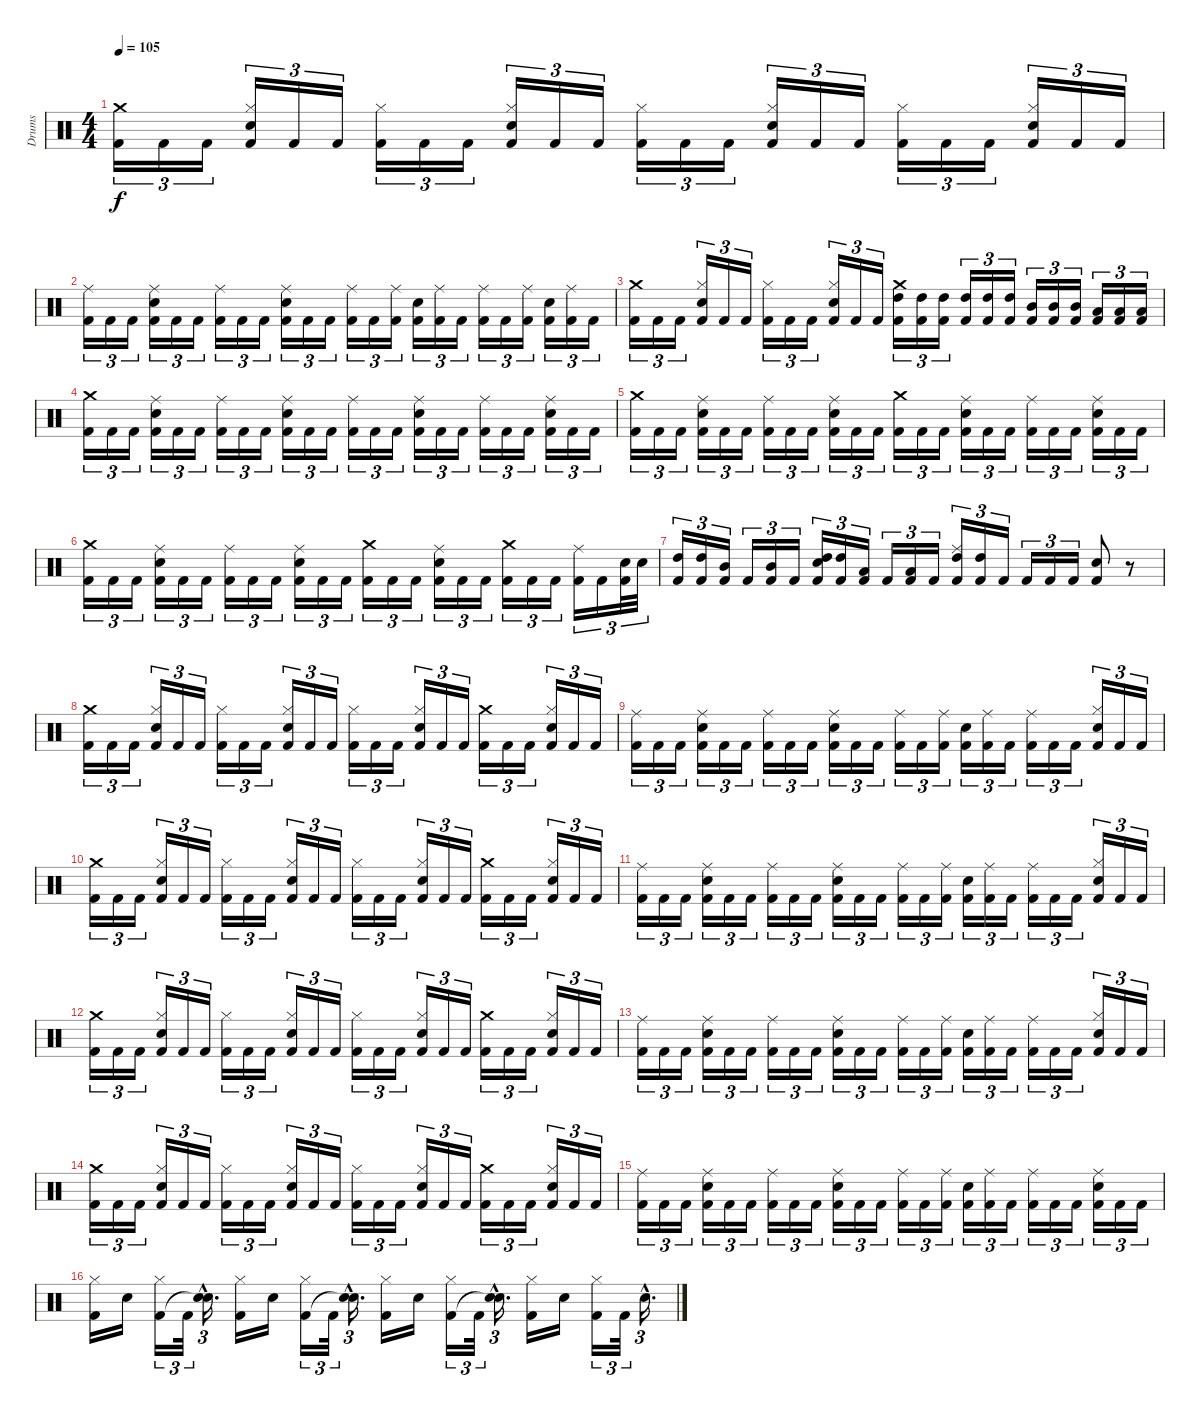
\track ("Drums" "Drums") {instrument percussion}
\staff {score}
\articulation defaults
\ts (4 4)
\tempo 105
\clef neutral
\ks c
("Crash medium (hit)" "Kick (hit) 2").16{tu (3 2) dy f} "Kick (hit) 2".16{tu (3 2)} "Kick (hit) 2".16{tu (3 2)} ("Hi-Hat (closed)" "Electric Snare (hit)" "Kick (hit) 2").16{tu (3 2)} "Kick (hit) 2".16{tu (3 2)} "Kick (hit) 2".16{tu (3 2)} ("Hi-Hat (closed)" "Kick (hit) 2").16{tu (3 2)} "Kick (hit) 2".16{tu (3 2)} "Kick (hit) 2".16{tu (3 2)} ("Hi-Hat (closed)" "Electric Snare (hit)" "Kick (hit) 2").16{tu (3 2)} "Kick (hit) 2".16{tu (3 2)} "Kick (hit) 2".16{tu (3 2)} ("Hi-Hat (closed)" "Kick (hit) 2").16{tu (3 2)} "Kick (hit) 2".16{tu (3 2)} "Kick (hit) 2".16{tu (3 2)} ("Hi-Hat (closed)" "Electric Snare (hit)" "Kick (hit) 2").16{tu (3 2)} "Kick (hit) 2".16{tu (3 2)} "Kick (hit) 2".16{tu (3 2)} ("Hi-Hat (closed)" "Kick (hit) 2").16{tu (3 2)} "Kick (hit) 2".16{tu (3 2)} "Kick (hit) 2".16{tu (3 2)} ("Hi-Hat (closed)" "Electric Snare (hit)" "Kick (hit) 2").16{tu (3 2)} "Kick (hit) 2".16{tu (3 2)} "Kick (hit) 2".16{tu (3 2)} |
("Ride (middle)" "Kick (hit) 2").16{tu (3 2)} "Kick (hit) 2".16{tu (3 2)} "Kick (hit) 2".16{tu (3 2)} ("Ride (middle)" "Electric Snare (hit)" "Kick (hit) 2").16{tu (3 2)} "Kick (hit) 2".16{tu (3 2)} "Kick (hit) 2".16{tu (3 2)} ("Ride (middle)" "Kick (hit) 2").16{tu (3 2)} "Kick (hit) 2".16{tu (3 2)} "Kick (hit) 2".16{tu (3 2)} ("Ride (middle)" "Electric Snare (hit)" "Kick (hit) 2").16{tu (3 2)} "Kick (hit) 2".16{tu (3 2)} "Kick (hit) 2".16{tu (3 2)} ("Ride (middle)" "Kick (hit) 2").16{tu (3 2)} "Kick (hit) 2".16{tu (3 2)} ("Ride (middle)" "Kick (hit) 2").16{tu (3 2)} ("Electric Snare (hit)" "Kick (hit) 2").16{tu (3 2)} ("Ride (middle)" "Kick (hit) 2").16{tu (3 2)} "Kick (hit) 2".16{tu (3 2)} ("Ride (middle)" "Kick (hit) 2").16{tu (3 2)} "Kick (hit) 2".16{tu (3 2)} ("Ride (middle)" "Kick (hit) 2").16{tu (3 2)} ("Electric Snare (hit)" "Kick (hit) 2").16{tu (3 2)} ("Ride (middle)" "Kick (hit) 2").16{tu (3 2)} "Kick (hit) 2".16{tu (3 2)} |
("Crash medium (hit)" "Kick (hit) 2").16{tu (3 2)} "Kick (hit) 2".16{tu (3 2)} "Kick (hit) 2".16{tu (3 2)} ("Hi-Hat (closed)" "Electric Snare (hit)" "Kick (hit) 2").16{tu (3 2)} "Kick (hit) 2".16{tu (3 2)} "Kick (hit) 2".16{tu (3 2)} ("Hi-Hat (closed)" "Kick (hit) 2").16{tu (3 2)} "Kick (hit) 2".16{tu (3 2)} "Kick (hit) 2".16{tu (3 2)} ("Hi-Hat (closed)" "Electric Snare (hit)" "Kick (hit) 2").16{tu (3 2)} "Kick (hit) 2".16{tu (3 2)} "Kick (hit) 2".16{tu (3 2)} ("Crash medium (hit)" "High Tom (hit)" "Kick (hit) 2").16{tu (3 2)} ("High Tom (hit)" "Kick (hit) 2").16{tu (3 2)} ("High Tom (hit)" "Kick (hit) 2").16{tu (3 2)} ("High Tom (hit)" "Kick (hit) 2").16{tu (3 2)} ("High Tom (hit)" "Kick (hit) 2").16{tu (3 2)} ("High Tom (hit)" "Kick (hit) 2").16{tu (3 2)} ("Mid Tom (hit)" "Kick (hit) 2").16{tu (3 2)} ("Mid Tom (hit)" "Kick (hit) 2").16{tu (3 2)} ("Mid Tom (hit)" "Kick (hit) 2").16{tu (3 2)} ("Low Tom (hit)" "Kick (hit) 2").16{tu (3 2)} ("Low Tom (hit)" "Kick (hit) 2").16{tu (3 2)} ("Low Tom (hit)" "Kick (hit) 2").16{tu (3 2)} |
("Crash medium (hit)" "Kick (hit) 2").16{tu (3 2)} "Kick (hit) 2".16{tu (3 2)} "Kick (hit) 2".16{tu (3 2)} ("Ride (middle)" "Electric Snare (hit)" "Kick (hit) 2").16{tu (3 2)} "Kick (hit) 2".16{tu (3 2)} "Kick (hit) 2".16{tu (3 2)} ("Ride (middle)" "Kick (hit) 2").16{tu (3 2)} "Kick (hit) 2".16{tu (3 2)} "Kick (hit) 2".16{tu (3 2)} ("Ride (middle)" "Electric Snare (hit)" "Kick (hit) 2").16{tu (3 2)} "Kick (hit) 2".16{tu (3 2)} "Kick (hit) 2".16{tu (3 2)} ("Ride (middle)" "Kick (hit) 2").16{tu (3 2)} "Kick (hit) 2".16{tu (3 2)} "Kick (hit) 2".16{tu (3 2)} ("Ride (middle)" "Electric Snare (hit)" "Kick (hit) 2").16{tu (3 2)} "Kick (hit) 2".16{tu (3 2)} "Kick (hit) 2".16{tu (3 2)} ("Ride (middle)" "Kick (hit) 2").16{tu (3 2)} "Kick (hit) 2".16{tu (3 2)} "Kick (hit) 2".16{tu (3 2)} ("Ride (middle)" "Electric Snare (hit)" "Kick (hit) 2").16{tu (3 2)} "Kick (hit) 2".16{tu (3 2)} "Kick (hit) 2".16{tu (3 2)} |
("Crash medium (hit)" "Kick (hit) 2").16{tu (3 2)} "Kick (hit) 2".16{tu (3 2)} "Kick (hit) 2".16{tu (3 2)} ("Ride (middle)" "Electric Snare (hit)" "Kick (hit) 2").16{tu (3 2)} "Kick (hit) 2".16{tu (3 2)} "Kick (hit) 2".16{tu (3 2)} ("Ride (middle)" "Kick (hit) 2").16{tu (3 2)} "Kick (hit) 2".16{tu (3 2)} "Kick (hit) 2".16{tu (3 2)} ("Ride (middle)" "Electric Snare (hit)" "Kick (hit) 2").16{tu (3 2)} "Kick (hit) 2".16{tu (3 2)} "Kick (hit) 2".16{tu (3 2)} ("Crash medium (hit)" "Kick (hit) 2").16{tu (3 2)} "Kick (hit) 2".16{tu (3 2)} "Kick (hit) 2".16{tu (3 2)} ("Ride (middle)" "Electric Snare (hit)" "Kick (hit) 2").16{tu (3 2)} "Kick (hit) 2".16{tu (3 2)} "Kick (hit) 2".16{tu (3 2)} ("Ride (middle)" "Kick (hit) 2").16{tu (3 2)} "Kick (hit) 2".16{tu (3 2)} "Kick (hit) 2".16{tu (3 2)} ("Ride (middle)" "Electric Snare (hit)" "Kick (hit) 2").16{tu (3 2)} "Kick (hit) 2".16{tu (3 2)} "Kick (hit) 2".16{tu (3 2)} |
("Crash medium (hit)" "Kick (hit) 2").16{tu (3 2)} "Kick (hit) 2".16{tu (3 2)} "Kick (hit) 2".16{tu (3 2)} ("Ride (middle)" "Electric Snare (hit)" "Kick (hit) 2").16{tu (3 2)} "Kick (hit) 2".16{tu (3 2)} "Kick (hit) 2".16{tu (3 2)} ("Ride (middle)" "Kick (hit) 2").16{tu (3 2)} "Kick (hit) 2".16{tu (3 2)} "Kick (hit) 2".16{tu (3 2)} ("Ride (middle)" "Electric Snare (hit)" "Kick (hit) 2").16{tu (3 2)} "Kick (hit) 2".16{tu (3 2)} "Kick (hit) 2".16{tu (3 2)} ("Crash medium (hit)" "Kick (hit) 2").16{tu (3 2)} "Kick (hit) 2".16{tu (3 2)} "Kick (hit) 2".16{tu (3 2)} ("Ride (middle)" "Electric Snare (hit)" "Kick (hit) 2").16{tu (3 2)} "Kick (hit) 2".16{tu (3 2)} "Kick (hit) 2".16{tu (3 2)} ("Crash medium (hit)" "Kick (hit) 2").16{tu (3 2)} "Kick (hit) 2".16{tu (3 2)} "Kick (hit) 2".16{tu (3 2)} ("Ride (middle)" "Kick (hit) 2").16{tu (3 2)} "Kick (hit) 2".16{tu (3 2)} ("Electric Snare (hit)" "Kick (hit) 2").32{tu (3 2)} "Electric Snare (hit)".32{tu (3 2)} |
("High Tom (hit)" "Kick (hit) 2").16{tu (3 2)} ("High Tom (hit)" "Kick (hit) 2").16{tu (3 2)} ("Mid Tom (hit)" "Kick (hit) 2").16{tu (3 2)} "Kick (hit) 2".16{tu (3 2)} ("Mid Tom (hit)" "Kick (hit) 2").16{tu (3 2)} "Kick (hit) 2".16{tu (3 2)} ("Electric Snare (hit)" "High Tom (hit)" "Kick (hit) 2").16{tu (3 2)} ("High Tom (hit)" "Kick (hit) 2").16{tu (3 2)} ("Low Tom (hit)" "Kick (hit) 2").16{tu (3 2)} "Kick (hit) 2".16{tu (3 2)} ("Low Tom (hit)" "Kick (hit) 2").16{tu (3 2)} "Kick (hit) 2".16{tu (3 2)} ("Ride (middle)" "High Tom (hit)" "Kick (hit) 2").16{tu (3 2)} ("High Tom (hit)" "Kick (hit) 2").16{tu (3 2)} "Kick (hit) 2".16{tu (3 2)} "Kick (hit) 2".16{tu (3 2)} "Kick (hit) 2".16{tu (3 2)} "Kick (hit) 2".16{tu (3 2)} ("Electric Snare (hit)" "Kick (hit) 2").8 r.8 |
("Crash medium (hit)" "Kick (hit) 2").16{tu (3 2)} "Kick (hit) 2".16{tu (3 2)} "Kick (hit) 2".16{tu (3 2)} ("Hi-Hat (closed)" "Electric Snare (hit)" "Kick (hit) 2").16{tu (3 2)} "Kick (hit) 2".16{tu (3 2)} "Kick (hit) 2".16{tu (3 2)} ("Hi-Hat (closed)" "Kick (hit) 2").16{tu (3 2)} "Kick (hit) 2".16{tu (3 2)} "Kick (hit) 2".16{tu (3 2)} ("Hi-Hat (closed)" "Electric Snare (hit)" "Kick (hit) 2").16{tu (3 2)} "Kick (hit) 2".16{tu (3 2)} "Kick (hit) 2".16{tu (3 2)} ("Hi-Hat (closed)" "Kick (hit) 2").16{tu (3 2)} "Kick (hit) 2".16{tu (3 2)} "Kick (hit) 2".16{tu (3 2)} ("Hi-Hat (closed)" "Electric Snare (hit)" "Kick (hit) 2").16{tu (3 2)} "Kick (hit) 2".16{tu (3 2)} "Kick (hit) 2".16{tu (3 2)} ("Crash medium (hit)" "Kick (hit) 2").16{tu (3 2)} "Kick (hit) 2".16{tu (3 2)} "Kick (hit) 2".16{tu (3 2)} ("Hi-Hat (closed)" "Electric Snare (hit)" "Kick (hit) 2").16{tu (3 2)} "Kick (hit) 2".16{tu (3 2)} "Kick (hit) 2".16{tu (3 2)} |
("Ride (middle)" "Kick (hit) 2").16{tu (3 2)} "Kick (hit) 2".16{tu (3 2)} "Kick (hit) 2".16{tu (3 2)} ("Ride (middle)" "Electric Snare (hit)" "Kick (hit) 2").16{tu (3 2)} "Kick (hit) 2".16{tu (3 2)} "Kick (hit) 2".16{tu (3 2)} ("Ride (middle)" "Kick (hit) 2").16{tu (3 2)} "Kick (hit) 2".16{tu (3 2)} "Kick (hit) 2".16{tu (3 2)} ("Ride (middle)" "Electric Snare (hit)" "Kick (hit) 2").16{tu (3 2)} "Kick (hit) 2".16{tu (3 2)} "Kick (hit) 2".16{tu (3 2)} ("Ride (middle)" "Kick (hit) 2").16{tu (3 2)} "Kick (hit) 2".16{tu (3 2)} ("Ride (middle)" "Kick (hit) 2").16{tu (3 2)} ("Electric Snare (hit)" "Kick (hit) 2").16{tu (3 2)} ("Ride (middle)" "Kick (hit) 2").16{tu (3 2)} "Kick (hit) 2".16{tu (3 2)} ("Ride (middle)" "Kick (hit) 2").16{tu (3 2)} "Kick (hit) 2".16{tu (3 2)} "Kick (hit) 2".16{tu (3 2)} ("Hi-Hat (closed)" "Electric Snare (hit)" "Kick (hit) 2").16{tu (3 2)} "Kick (hit) 2".16{tu (3 2)} "Kick (hit) 2".16{tu (3 2)} |
("Crash medium (hit)" "Kick (hit) 2").16{tu (3 2)} "Kick (hit) 2".16{tu (3 2)} "Kick (hit) 2".16{tu (3 2)} ("Hi-Hat (closed)" "Electric Snare (hit)" "Kick (hit) 2").16{tu (3 2)} "Kick (hit) 2".16{tu (3 2)} "Kick (hit) 2".16{tu (3 2)} ("Hi-Hat (closed)" "Kick (hit) 2").16{tu (3 2)} "Kick (hit) 2".16{tu (3 2)} "Kick (hit) 2".16{tu (3 2)} ("Hi-Hat (closed)" "Electric Snare (hit)" "Kick (hit) 2").16{tu (3 2)} "Kick (hit) 2".16{tu (3 2)} "Kick (hit) 2".16{tu (3 2)} ("Hi-Hat (closed)" "Kick (hit) 2").16{tu (3 2)} "Kick (hit) 2".16{tu (3 2)} "Kick (hit) 2".16{tu (3 2)} ("Hi-Hat (closed)" "Electric Snare (hit)" "Kick (hit) 2").16{tu (3 2)} "Kick (hit) 2".16{tu (3 2)} "Kick (hit) 2".16{tu (3 2)} ("Crash medium (hit)" "Kick (hit) 2").16{tu (3 2)} "Kick (hit) 2".16{tu (3 2)} "Kick (hit) 2".16{tu (3 2)} ("Hi-Hat (closed)" "Electric Snare (hit)" "Kick (hit) 2").16{tu (3 2)} "Kick (hit) 2".16{tu (3 2)} "Kick (hit) 2".16{tu (3 2)} |
("Ride (middle)" "Kick (hit) 2").16{tu (3 2)} "Kick (hit) 2".16{tu (3 2)} "Kick (hit) 2".16{tu (3 2)} ("Ride (middle)" "Electric Snare (hit)" "Kick (hit) 2").16{tu (3 2)} "Kick (hit) 2".16{tu (3 2)} "Kick (hit) 2".16{tu (3 2)} ("Ride (middle)" "Kick (hit) 2").16{tu (3 2)} "Kick (hit) 2".16{tu (3 2)} "Kick (hit) 2".16{tu (3 2)} ("Ride (middle)" "Electric Snare (hit)" "Kick (hit) 2").16{tu (3 2)} "Kick (hit) 2".16{tu (3 2)} "Kick (hit) 2".16{tu (3 2)} ("Ride (middle)" "Kick (hit) 2").16{tu (3 2)} "Kick (hit) 2".16{tu (3 2)} ("Ride (middle)" "Kick (hit) 2").16{tu (3 2)} ("Electric Snare (hit)" "Kick (hit) 2").16{tu (3 2)} ("Ride (middle)" "Kick (hit) 2").16{tu (3 2)} "Kick (hit) 2".16{tu (3 2)} ("Ride (middle)" "Kick (hit) 2").16{tu (3 2)} "Kick (hit) 2".16{tu (3 2)} "Kick (hit) 2".16{tu (3 2)} ("Hi-Hat (closed)" "Electric Snare (hit)" "Kick (hit) 2").16{tu (3 2)} "Kick (hit) 2".16{tu (3 2)} "Kick (hit) 2".16{tu (3 2)} |
("Crash medium (hit)" "Kick (hit) 2").16{tu (3 2)} "Kick (hit) 2".16{tu (3 2)} "Kick (hit) 2".16{tu (3 2)} ("Hi-Hat (closed)" "Electric Snare (hit)" "Kick (hit) 2").16{tu (3 2)} "Kick (hit) 2".16{tu (3 2)} "Kick (hit) 2".16{tu (3 2)} ("Hi-Hat (closed)" "Kick (hit) 2").16{tu (3 2)} "Kick (hit) 2".16{tu (3 2)} "Kick (hit) 2".16{tu (3 2)} ("Hi-Hat (closed)" "Electric Snare (hit)" "Kick (hit) 2").16{tu (3 2)} "Kick (hit) 2".16{tu (3 2)} "Kick (hit) 2".16{tu (3 2)} ("Hi-Hat (closed)" "Kick (hit) 2").16{tu (3 2)} "Kick (hit) 2".16{tu (3 2)} "Kick (hit) 2".16{tu (3 2)} ("Hi-Hat (closed)" "Electric Snare (hit)" "Kick (hit) 2").16{tu (3 2)} "Kick (hit) 2".16{tu (3 2)} "Kick (hit) 2".16{tu (3 2)} ("Crash medium (hit)" "Kick (hit) 2").16{tu (3 2)} "Kick (hit) 2".16{tu (3 2)} "Kick (hit) 2".16{tu (3 2)} ("Hi-Hat (closed)" "Electric Snare (hit)" "Kick (hit) 2").16{tu (3 2)} "Kick (hit) 2".16{tu (3 2)} "Kick (hit) 2".16{tu (3 2)} |
("Ride (middle)" "Kick (hit) 2").16{tu (3 2)} "Kick (hit) 2".16{tu (3 2)} "Kick (hit) 2".16{tu (3 2)} ("Ride (middle)" "Electric Snare (hit)" "Kick (hit) 2").16{tu (3 2)} "Kick (hit) 2".16{tu (3 2)} "Kick (hit) 2".16{tu (3 2)} ("Ride (middle)" "Kick (hit) 2").16{tu (3 2)} "Kick (hit) 2".16{tu (3 2)} "Kick (hit) 2".16{tu (3 2)} ("Ride (middle)" "Electric Snare (hit)" "Kick (hit) 2").16{tu (3 2)} "Kick (hit) 2".16{tu (3 2)} "Kick (hit) 2".16{tu (3 2)} ("Ride (middle)" "Kick (hit) 2").16{tu (3 2)} "Kick (hit) 2".16{tu (3 2)} ("Ride (middle)" "Kick (hit) 2").16{tu (3 2)} ("Electric Snare (hit)" "Kick (hit) 2").16{tu (3 2)} ("Ride (middle)" "Kick (hit) 2").16{tu (3 2)} "Kick (hit) 2".16{tu (3 2)} ("Ride (middle)" "Kick (hit) 2").16{tu (3 2)} "Kick (hit) 2".16{tu (3 2)} "Kick (hit) 2".16{tu (3 2)} ("Hi-Hat (closed)" "Electric Snare (hit)" "Kick (hit) 2").16{tu (3 2)} "Kick (hit) 2".16{tu (3 2)} "Kick (hit) 2".16{tu (3 2)} |
("Crash medium (hit)" "Kick (hit) 2").16{tu (3 2)} "Kick (hit) 2".16{tu (3 2)} "Kick (hit) 2".16{tu (3 2)} ("Hi-Hat (closed)" "Electric Snare (hit)" "Kick (hit) 2").16{tu (3 2)} "Kick (hit) 2".16{tu (3 2)} "Kick (hit) 2".16{tu (3 2)} ("Hi-Hat (closed)" "Kick (hit) 2").16{tu (3 2)} "Kick (hit) 2".16{tu (3 2)} "Kick (hit) 2".16{tu (3 2)} ("Hi-Hat (closed)" "Electric Snare (hit)" "Kick (hit) 2").16{tu (3 2)} "Kick (hit) 2".16{tu (3 2)} "Kick (hit) 2".16{tu (3 2)} ("Hi-Hat (closed)" "Kick (hit) 2").16{tu (3 2)} "Kick (hit) 2".16{tu (3 2)} "Kick (hit) 2".16{tu (3 2)} ("Hi-Hat (closed)" "Electric Snare (hit)" "Kick (hit) 2").16{tu (3 2)} "Kick (hit) 2".16{tu (3 2)} "Kick (hit) 2".16{tu (3 2)} ("Crash medium (hit)" "Kick (hit) 2").16{tu (3 2)} "Kick (hit) 2".16{tu (3 2)} "Kick (hit) 2".16{tu (3 2)} ("Hi-Hat (closed)" "Electric Snare (hit)" "Kick (hit) 2").16{tu (3 2)} "Kick (hit) 2".16{tu (3 2)} "Kick (hit) 2".16{tu (3 2)} |
("Ride (middle)" "Kick (hit) 2").16{tu (3 2)} "Kick (hit) 2".16{tu (3 2)} "Kick (hit) 2".16{tu (3 2)} ("Ride (middle)" "Electric Snare (hit)" "Kick (hit) 2").16{tu (3 2)} "Kick (hit) 2".16{tu (3 2)} "Kick (hit) 2".16{tu (3 2)} ("Ride (middle)" "Kick (hit) 2").16{tu (3 2)} "Kick (hit) 2".16{tu (3 2)} "Kick (hit) 2".16{tu (3 2)} ("Ride (middle)" "Electric Snare (hit)" "Kick (hit) 2").16{tu (3 2)} "Kick (hit) 2".16{tu (3 2)} "Kick (hit) 2".16{tu (3 2)} ("Ride (middle)" "Kick (hit) 2").16{tu (3 2)} "Kick (hit) 2".16{tu (3 2)} ("Ride (middle)" "Kick (hit) 2").16{tu (3 2)} ("Electric Snare (hit)" "Kick (hit) 2").16{tu (3 2)} ("Ride (middle)" "Kick (hit) 2").16{tu (3 2)} "Kick (hit) 2".16{tu (3 2)} ("Ride (middle)" "Kick (hit) 2").16{tu (3 2)} "Kick (hit) 2".16{tu (3 2)} "Kick (hit) 2".16{tu (3 2)} ("Ride (middle)" "Electric Snare (hit)" "Kick (hit) 2").16{tu (3 2)} "Kick (hit) 2".16{tu (3 2)} "Kick (hit) 2".16{tu (3 2)} |
("Hi-Hat (closed)" "Kick (hit) 2").16 "Electric Snare (hit)".16 ("Hi-Hat (closed)" "Kick (hit) 2").16{tu (3 2)} "Kick (hit) 2".32{tu (3 2)} ("Electric Snare (hit)"{hac} "Snare (hit)"{hac t}).16{d tu (3 2)} ("Hi-Hat (closed)" "Kick (hit) 2").16 "Electric Snare (hit)".16 ("Hi-Hat (closed)" "Kick (hit) 2").16{tu (3 2)} "Kick (hit) 2".32{tu (3 2)} ("Electric Snare (hit)"{hac} "Snare (hit)"{hac t}).16{d tu (3 2)} ("Hi-Hat (closed)" "Kick (hit) 2").16 "Electric Snare (hit)".16 ("Hi-Hat (closed)" "Kick (hit) 2").16{tu (3 2)} "Kick (hit) 2".32{tu (3 2)} ("Electric Snare (hit)"{hac} "Snare (hit)"{hac t}).16{d tu (3 2)} ("Hi-Hat (closed)" "Kick (hit) 2").16 "Electric Snare (hit)".16 ("Hi-Hat (closed)" "Kick (hit) 2").16{tu (3 2)} "Kick (hit) 2".32{tu (3 2)} "Electric Snare (hit)"{hac}.16{d tu (3 2)}
